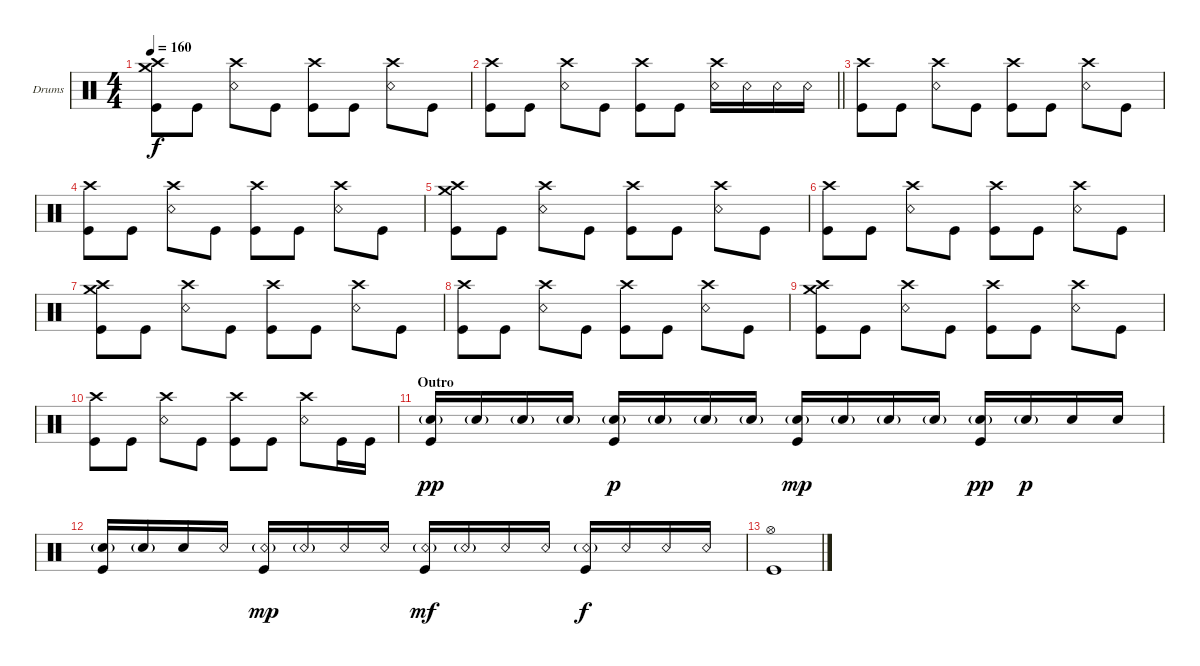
\bracketExtendMode groupsimilarinstruments
\firstSystemTrackNameOrientation horizontal
\otherSystemsTrackNameOrientation horizontal
\track ("Drums" "Drums") {instrument percussion}
\staff {score}
\articulation defaults
\ts (4 4)
\tempo 160
\clef neutral
\ks c
("Kick (hit)" "Crash high (hit)" "Crash medium (hit)").8{dy f} "Kick (hit)".8 ("Snare (rim shot)" "Crash high (hit)").8 "Kick (hit)".8 ("Kick (hit)" "Crash high (hit)").8 "Kick (hit)".8 ("Snare (rim shot)" "Crash high (hit)").8 "Kick (hit)".8 |
\barLineRight lightlight
("Kick (hit)" "Crash high (hit)").8 "Kick (hit)".8 ("Snare (rim shot)" "Crash high (hit)").8 "Kick (hit)".8 ("Kick (hit)" "Crash high (hit)").8 "Kick (hit)".8 ("Snare (rim shot)" "Crash high (hit)").16 "Snare (rim shot)".16 "Snare (rim shot)".16 "Snare (rim shot)".16 |
("Kick (hit)" "Crash high (hit)").8 "Kick (hit)".8 ("Snare (rim shot)" "Crash high (hit)").8 "Kick (hit)".8 ("Kick (hit)" "Crash high (hit)").8 "Kick (hit)".8 ("Snare (rim shot)" "Crash high (hit)").8 "Kick (hit)".8 |
("Kick (hit)" "Crash high (hit)").8 "Kick (hit)".8 ("Snare (rim shot)" "Crash high (hit)").8 "Kick (hit)".8 ("Kick (hit)" "Crash high (hit)").8 "Kick (hit)".8 ("Snare (rim shot)" "Crash high (hit)").8 "Kick (hit)".8 |
("Kick (hit)" "Crash high (hit)" "Crash medium (hit)").8 "Kick (hit)".8 ("Snare (rim shot)" "Crash high (hit)").8 "Kick (hit)".8 ("Kick (hit)" "Crash high (hit)").8 "Kick (hit)".8 ("Snare (rim shot)" "Crash high (hit)").8 "Kick (hit)".8 |
("Kick (hit)" "Crash high (hit)").8 "Kick (hit)".8 ("Snare (rim shot)" "Crash high (hit)").8 "Kick (hit)".8 ("Kick (hit)" "Crash high (hit)").8 "Kick (hit)".8 ("Snare (rim shot)" "Crash high (hit)").8 "Kick (hit)".8 |
("Kick (hit)" "Crash high (hit)" "Crash medium (hit)").8 "Kick (hit)".8 ("Snare (rim shot)" "Crash high (hit)").8 "Kick (hit)".8 ("Kick (hit)" "Crash high (hit)").8 "Kick (hit)".8 ("Snare (rim shot)" "Crash high (hit)").8 "Kick (hit)".8 |
("Kick (hit)" "Crash high (hit)").8 "Kick (hit)".8 ("Snare (rim shot)" "Crash high (hit)").8 "Kick (hit)".8 ("Kick (hit)" "Crash high (hit)").8 "Kick (hit)".8 ("Snare (rim shot)" "Crash high (hit)").8 "Kick (hit)".8 |
("Kick (hit)" "Crash high (hit)" "Crash medium (hit)").8 "Kick (hit)".8 ("Snare (rim shot)" "Crash high (hit)").8 "Kick (hit)".8 ("Kick (hit)" "Crash high (hit)").8 "Kick (hit)".8 ("Snare (rim shot)" "Crash high (hit)").8 "Kick (hit)".8 |
("Kick (hit)" "Crash high (hit)").8 "Kick (hit)".8 ("Snare (rim shot)" "Crash high (hit)").8 "Kick (hit)".8 ("Kick (hit)" "Crash high (hit)").8 "Kick (hit)".8 ("Snare (rim shot)" "Crash high (hit)").8 "Kick (hit)".16 "Kick (hit)".16 |
\section ("" "Outro")
("Snare (hit) 2"{g} "Kick (hit)").16{dy pp} "Snare (hit) 2"{g}.16 "Snare (hit) 2"{g}.16 "Snare (hit) 2"{g}.16 ("Snare (hit) 2"{g} "Kick (hit)").16{dy p} "Snare (hit) 2"{g}.16 "Snare (hit) 2"{g}.16 "Snare (hit) 2"{g}.16 ("Snare (hit) 2"{g} "Kick (hit)").16{dy mp} "Snare (hit) 2"{g}.16 "Snare (hit) 2"{g}.16 "Snare (hit) 2"{g}.16 ("Snare (hit) 2"{g} "Kick (hit)").16{dy pp} "Snare (hit) 2"{g}.16{dy p} "Snare (hit) 2".16 "Snare (hit) 2".16 |
("Snare (hit) 2"{g} "Kick (hit)").16 "Snare (hit) 2"{g}.16 "Snare (hit) 2".16 "Snare (rim shot)".16 ("Snare (rim shot)"{g} "Kick (hit)").16{dy mp} "Snare (rim shot)"{g}.16 "Snare (rim shot)".16 "Snare (rim shot)".16 ("Snare (rim shot)"{g} "Kick (hit)").16{dy mf} "Snare (rim shot)"{g}.16 "Snare (rim shot)".16 "Snare (rim shot)".16 ("Snare (rim shot)"{g} "Kick (hit)").16{dy f} "Snare (rim shot)".16 "Snare (rim shot)".16 "Snare (rim shot)".16 |
("Kick (hit)" "Hi-Hat (open)").1
